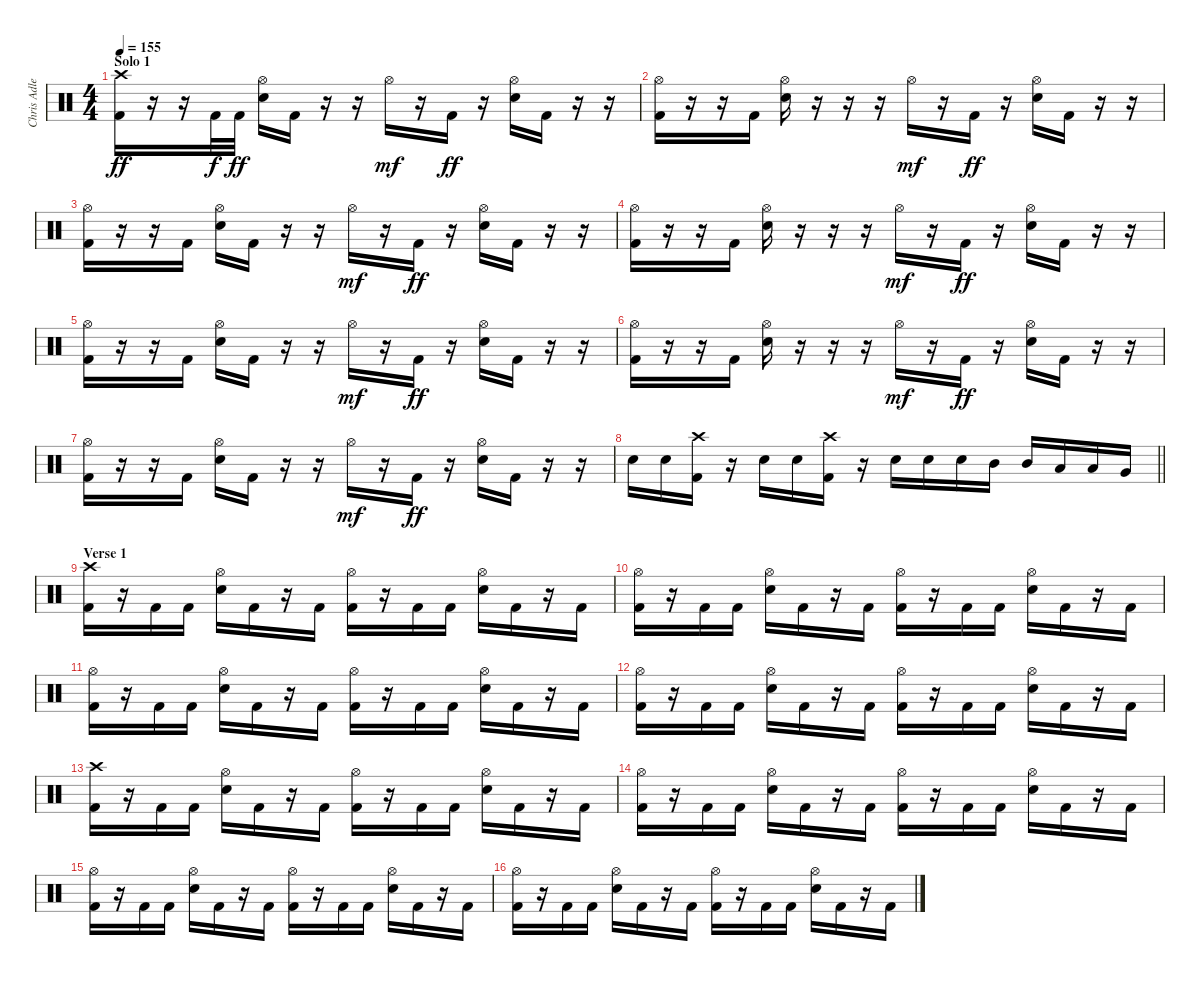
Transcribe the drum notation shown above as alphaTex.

\track ("Chris Adler" "Chris Adle") {instrument percussion}
\staff {score}
\articulation defaults
\ts (4 4)
\section ("" "Solo 1")
\tempo 155
\clef neutral
\ks c
("Crash high (hit)" "Kick (hit) 2").16{dy ff} r.16 r.16 "Kick (hit) 2".32{dy f} "Kick (hit) 2".32{dy ff} ("Hi-Hat (open)" "Snare (hit) 2").16 "Kick (hit) 2".16 r.16 r.16 "Hi-Hat (open)".16{dy mf} r.16 "Kick (hit) 2".16{dy ff} r.16 ("Hi-Hat (open)" "Snare (hit) 2").16 "Kick (hit) 2".16 r.16 r.16 |
("Hi-Hat (open)" "Kick (hit) 2").16 r.16 r.16 "Kick (hit) 2".16 ("Hi-Hat (open)" "Snare (hit) 2").16 r.16 r.16 r.16 "Hi-Hat (open)".16{dy mf} r.16 "Kick (hit) 2".16{dy ff} r.16 ("Hi-Hat (open)" "Snare (hit) 2").16 "Kick (hit) 2".16 r.16 r.16 |
("Hi-Hat (open)" "Kick (hit) 2").16 r.16 r.16 "Kick (hit) 2".16 ("Hi-Hat (open)" "Snare (hit) 2").16 "Kick (hit) 2".16 r.16 r.16 "Hi-Hat (open)".16{dy mf} r.16 "Kick (hit) 2".16{dy ff} r.16 ("Hi-Hat (open)" "Snare (hit) 2").16 "Kick (hit) 2".16 r.16 r.16 |
("Hi-Hat (open)" "Kick (hit) 2").16 r.16 r.16 "Kick (hit) 2".16 ("Hi-Hat (open)" "Snare (hit) 2").16 r.16 r.16 r.16 "Hi-Hat (open)".16{dy mf} r.16 "Kick (hit) 2".16{dy ff} r.16 ("Hi-Hat (open)" "Snare (hit) 2").16 "Kick (hit) 2".16 r.16 r.16 |
("Hi-Hat (open)" "Kick (hit) 2").16 r.16 r.16 "Kick (hit) 2".16 ("Hi-Hat (open)" "Snare (hit) 2").16 "Kick (hit) 2".16 r.16 r.16 "Hi-Hat (open)".16{dy mf} r.16 "Kick (hit) 2".16{dy ff} r.16 ("Hi-Hat (open)" "Snare (hit) 2").16 "Kick (hit) 2".16 r.16 r.16 |
("Hi-Hat (open)" "Kick (hit) 2").16 r.16 r.16 "Kick (hit) 2".16 ("Hi-Hat (open)" "Snare (hit) 2").16 r.16 r.16 r.16 "Hi-Hat (open)".16{dy mf} r.16 "Kick (hit) 2".16{dy ff} r.16 ("Hi-Hat (open)" "Snare (hit) 2").16 "Kick (hit) 2".16 r.16 r.16 |
("Hi-Hat (open)" "Kick (hit) 2").16 r.16 r.16 "Kick (hit) 2".16 ("Hi-Hat (open)" "Snare (hit) 2").16 "Kick (hit) 2".16 r.16 r.16 "Hi-Hat (open)".16{dy mf} r.16 "Kick (hit) 2".16{dy ff} r.16 ("Hi-Hat (open)" "Snare (hit) 2").16 "Kick (hit) 2".16 r.16 r.16 |
\barLineRight lightlight "Snare (hit) 2".16 "Snare (hit) 2".16
("Crash high (hit)" "Kick (hit) 2").16 r.16 "Snare (hit) 2".16 "Snare (hit) 2".16 ("Crash high (hit)" "Kick (hit) 2").16 r.16 "Snare (hit) 2".16 "Snare (hit) 2".16 "Snare (hit) 2".16 "Mid Tom (hit)".16 "Mid Tom (hit)".16 "Low Tom (hit)".16 "Low Tom (hit)".16 "Very Low Tom (hit)".16 |
\section ("" "Verse 1 ")
("Crash high (hit)" "Kick (hit) 2").16 r.16 "Kick (hit) 2".16 "Kick (hit) 2".16 ("Hi-Hat (open)" "Snare (hit) 2").16 "Kick (hit) 2".16 r.16 "Kick (hit) 2".16 ("Hi-Hat (open)" "Kick (hit) 2").16 r.16 "Kick (hit) 2".16 "Kick (hit) 2".16 ("Hi-Hat (open)" "Snare (hit) 2").16 "Kick (hit) 2".16 r.16 "Kick (hit) 2".16 |
("Hi-Hat (open)" "Kick (hit) 2").16 r.16 "Kick (hit) 2".16 "Kick (hit) 2".16 ("Hi-Hat (open)" "Snare (hit) 2").16 "Kick (hit) 2".16 r.16 "Kick (hit) 2".16 ("Hi-Hat (open)" "Kick (hit) 2").16 r.16 "Kick (hit) 2".16 "Kick (hit) 2".16 ("Hi-Hat (open)" "Snare (hit) 2").16 "Kick (hit) 2".16 r.16 "Kick (hit) 2".16 |
("Hi-Hat (open)" "Kick (hit) 2").16 r.16 "Kick (hit) 2".16 "Kick (hit) 2".16 ("Hi-Hat (open)" "Snare (hit) 2").16 "Kick (hit) 2".16 r.16 "Kick (hit) 2".16 ("Hi-Hat (open)" "Kick (hit) 2").16 r.16 "Kick (hit) 2".16 "Kick (hit) 2".16 ("Hi-Hat (open)" "Snare (hit) 2").16 "Kick (hit) 2".16 r.16 "Kick (hit) 2".16 |
("Hi-Hat (open)" "Kick (hit) 2").16 r.16 "Kick (hit) 2".16 "Kick (hit) 2".16 ("Hi-Hat (open)" "Snare (hit) 2").16 "Kick (hit) 2".16 r.16 "Kick (hit) 2".16 ("Hi-Hat (open)" "Kick (hit) 2").16 r.16 "Kick (hit) 2".16 "Kick (hit) 2".16 ("Hi-Hat (open)" "Snare (hit) 2").16 "Kick (hit) 2".16 r.16 "Kick (hit) 2".16 |
("Crash high (hit)" "Kick (hit) 2").16 r.16 "Kick (hit) 2".16 "Kick (hit) 2".16 ("Hi-Hat (open)" "Snare (hit) 2").16 "Kick (hit) 2".16 r.16 "Kick (hit) 2".16 ("Hi-Hat (open)" "Kick (hit) 2").16 r.16 "Kick (hit) 2".16 "Kick (hit) 2".16 ("Hi-Hat (open)" "Snare (hit) 2").16 "Kick (hit) 2".16 r.16 "Kick (hit) 2".16 |
("Hi-Hat (open)" "Kick (hit) 2").16 r.16 "Kick (hit) 2".16 "Kick (hit) 2".16 ("Hi-Hat (open)" "Snare (hit) 2").16 "Kick (hit) 2".16 r.16 "Kick (hit) 2".16 ("Hi-Hat (open)" "Kick (hit) 2").16 r.16 "Kick (hit) 2".16 "Kick (hit) 2".16 ("Hi-Hat (open)" "Snare (hit) 2").16 "Kick (hit) 2".16 r.16 "Kick (hit) 2".16 |
("Hi-Hat (open)" "Kick (hit) 2").16 r.16 "Kick (hit) 2".16 "Kick (hit) 2".16 ("Hi-Hat (open)" "Snare (hit) 2").16 "Kick (hit) 2".16 r.16 "Kick (hit) 2".16 ("Hi-Hat (open)" "Kick (hit) 2").16 r.16 "Kick (hit) 2".16 "Kick (hit) 2".16 ("Hi-Hat (open)" "Snare (hit) 2").16 "Kick (hit) 2".16 r.16 "Kick (hit) 2".16 |
("Hi-Hat (open)" "Kick (hit) 2").16 r.16 "Kick (hit) 2".16 "Kick (hit) 2".16 ("Hi-Hat (open)" "Snare (hit) 2").16 "Kick (hit) 2".16 r.16 "Kick (hit) 2".16 ("Hi-Hat (open)" "Kick (hit) 2").16 r.16 "Kick (hit) 2".16 "Kick (hit) 2".16 ("Hi-Hat (open)" "Snare (hit) 2").16 "Kick (hit) 2".16 r.16 "Kick (hit) 2".16
